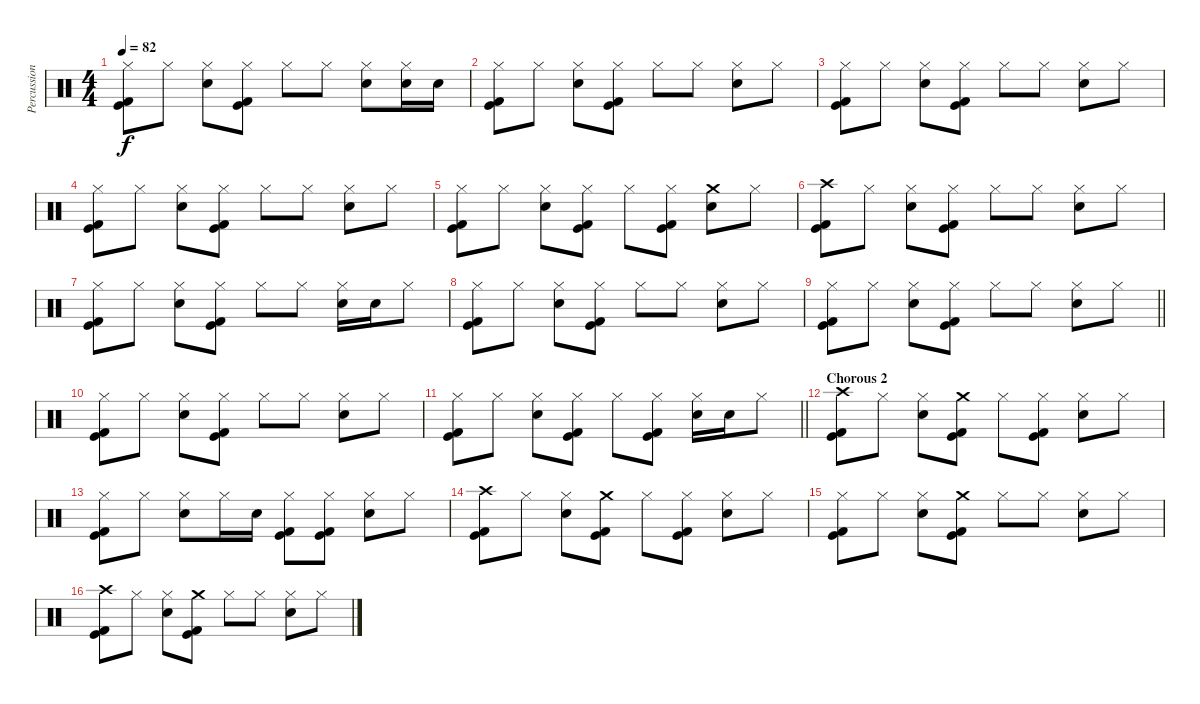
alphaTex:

\track ("Percussion" "Percussion") {instrument percussion}
\staff {score}
\articulation defaults
\ts (4 4)
\tempo 82
\clef neutral
\ks c
("Hi-Hat (closed)" "Kick (hit)" "Kick (hit) 2").8{dy f} "Hi-Hat (closed)".8 ("Hi-Hat (closed)" "Electric Snare (hit)").8 ("Hi-Hat (closed)" "Kick (hit)" "Kick (hit) 2").8 "Hi-Hat (closed)".8 "Hi-Hat (closed)".8 ("Hi-Hat (closed)" "Electric Snare (hit)").8 ("Hi-Hat (closed)" "Electric Snare (hit)").16 "Electric Snare (hit)".16 |
("Hi-Hat (closed)" "Kick (hit)" "Kick (hit) 2").8 "Hi-Hat (closed)".8 ("Hi-Hat (closed)" "Electric Snare (hit)").8 ("Hi-Hat (closed)" "Kick (hit)" "Kick (hit) 2").8 "Hi-Hat (closed)".8 "Hi-Hat (closed)".8 ("Hi-Hat (closed)" "Electric Snare (hit)").8 "Hi-Hat (closed)".8 |
("Hi-Hat (closed)" "Kick (hit)" "Kick (hit) 2").8 "Hi-Hat (closed)".8 ("Hi-Hat (closed)" "Electric Snare (hit)").8 ("Hi-Hat (closed)" "Kick (hit)" "Kick (hit) 2").8 "Hi-Hat (closed)".8 "Hi-Hat (closed)".8 ("Hi-Hat (closed)" "Electric Snare (hit)").8 "Hi-Hat (closed)".8 |
("Hi-Hat (closed)" "Kick (hit)" "Kick (hit) 2").8 "Hi-Hat (closed)".8 ("Hi-Hat (closed)" "Electric Snare (hit)").8 ("Hi-Hat (closed)" "Kick (hit)" "Kick (hit) 2").8 "Hi-Hat (closed)".8 "Hi-Hat (closed)".8 ("Hi-Hat (closed)" "Electric Snare (hit)").8 "Hi-Hat (closed)".8 |
("Hi-Hat (closed)" "Kick (hit)" "Kick (hit) 2").8 "Hi-Hat (closed)".8 ("Hi-Hat (closed)" "Electric Snare (hit)").8 ("Hi-Hat (closed)" "Kick (hit)" "Kick (hit) 2").8 "Hi-Hat (closed)".8 ("Hi-Hat (closed)" "Kick (hit)" "Kick (hit) 2").8 ("Crash medium (hit)" "Electric Snare (hit)").8 "Hi-Hat (closed)".8 |
("Crash high (hit)" "Kick (hit)" "Kick (hit) 2").8 "Hi-Hat (closed)".8 ("Hi-Hat (closed)" "Electric Snare (hit)").8 ("Hi-Hat (closed)" "Kick (hit)" "Kick (hit) 2").8 "Hi-Hat (closed)".8 "Hi-Hat (closed)".8 ("Hi-Hat (closed)" "Electric Snare (hit)").8 "Hi-Hat (closed)".8 |
("Hi-Hat (closed)" "Kick (hit)" "Kick (hit) 2").8 "Hi-Hat (closed)".8 ("Hi-Hat (closed)" "Electric Snare (hit)").8 ("Hi-Hat (closed)" "Kick (hit)" "Kick (hit) 2").8 "Hi-Hat (closed)".8 "Hi-Hat (closed)".8 ("Hi-Hat (closed)" "Electric Snare (hit)").16 "Electric Snare (hit)".16 "Hi-Hat (closed)".8 |
("Hi-Hat (closed)" "Kick (hit)" "Kick (hit) 2").8 "Hi-Hat (closed)".8 ("Hi-Hat (closed)" "Electric Snare (hit)").8 ("Hi-Hat (closed)" "Kick (hit)" "Kick (hit) 2").8 "Hi-Hat (closed)".8 "Hi-Hat (closed)".8 ("Hi-Hat (closed)" "Electric Snare (hit)").8 "Hi-Hat (closed)".8 |
\barLineRight lightlight
("Hi-Hat (closed)" "Kick (hit)" "Kick (hit) 2").8 "Hi-Hat (closed)".8 ("Hi-Hat (closed)" "Electric Snare (hit)").8 ("Hi-Hat (closed)" "Kick (hit)" "Kick (hit) 2").8 "Hi-Hat (closed)".8 "Hi-Hat (closed)".8 ("Hi-Hat (closed)" "Electric Snare (hit)").8 "Hi-Hat (closed)".8 |
\section ("" "")
("Hi-Hat (closed)" "Kick (hit)" "Kick (hit) 2").8 "Hi-Hat (closed)".8 ("Hi-Hat (closed)" "Electric Snare (hit)").8 ("Hi-Hat (closed)" "Kick (hit)" "Kick (hit) 2").8 "Hi-Hat (closed)".8 "Hi-Hat (closed)".8 ("Hi-Hat (closed)" "Electric Snare (hit)").8 "Hi-Hat (closed)".8 |
\barLineRight lightlight
("Hi-Hat (closed)" "Kick (hit)" "Kick (hit) 2").8 "Hi-Hat (closed)".8 ("Hi-Hat (closed)" "Electric Snare (hit)").8 ("Hi-Hat (closed)" "Kick (hit)" "Kick (hit) 2").8 "Hi-Hat (closed)".8 ("Hi-Hat (closed)" "Kick (hit)" "Kick (hit) 2").8 ("Hi-Hat (closed)" "Electric Snare (hit)").16 "Electric Snare (hit)".16 "Hi-Hat (closed)".8 |
\section ("" "Chorous 2")
("Crash high (hit)" "Kick (hit)" "Kick (hit) 2").8 "Hi-Hat (closed)".8 ("Hi-Hat (closed)" "Electric Snare (hit)").8 ("Crash medium (hit)" "Kick (hit)" "Kick (hit) 2").8 "Hi-Hat (closed)".8 ("Hi-Hat (closed)" "Kick (hit)" "Kick (hit) 2").8 ("Hi-Hat (closed)" "Electric Snare (hit)").8 "Hi-Hat (closed)".8 |
("Hi-Hat (closed)" "Kick (hit)" "Kick (hit) 2").8 "Hi-Hat (closed)".8 ("Hi-Hat (closed)" "Electric Snare (hit)").8 "Hi-Hat (closed)".16 "Electric Snare (hit)".16 ("Hi-Hat (closed)" "Kick (hit)" "Kick (hit) 2").8 ("Hi-Hat (closed)" "Kick (hit)" "Kick (hit) 2").8 ("Hi-Hat (closed)" "Electric Snare (hit)").8 "Hi-Hat (closed)".8 |
("Crash high (hit)" "Kick (hit)" "Kick (hit) 2").8 "Hi-Hat (closed)".8 ("Hi-Hat (closed)" "Electric Snare (hit)").8 ("Crash medium (hit)" "Kick (hit)" "Kick (hit) 2").8 "Hi-Hat (closed)".8 ("Hi-Hat (closed)" "Kick (hit)" "Kick (hit) 2").8 ("Hi-Hat (closed)" "Electric Snare (hit)").8 "Hi-Hat (closed)".8 |
("Hi-Hat (closed)" "Kick (hit)" "Kick (hit) 2").8 "Hi-Hat (closed)".8 ("Hi-Hat (closed)" "Electric Snare (hit)").8 ("Crash medium (hit)" "Kick (hit)" "Kick (hit) 2").8 "Hi-Hat (closed)".8 "Hi-Hat (closed)".8 ("Hi-Hat (closed)" "Electric Snare (hit)").8 "Hi-Hat (closed)".8 |
("Crash high (hit)" "Kick (hit)" "Kick (hit) 2").8 "Hi-Hat (closed)".8 ("Hi-Hat (closed)" "Electric Snare (hit)").8 ("Crash medium (hit)" "Kick (hit)" "Kick (hit) 2").8 "Hi-Hat (closed)".8 "Hi-Hat (closed)".8 ("Hi-Hat (closed)" "Electric Snare (hit)").8 "Hi-Hat (closed)".8
